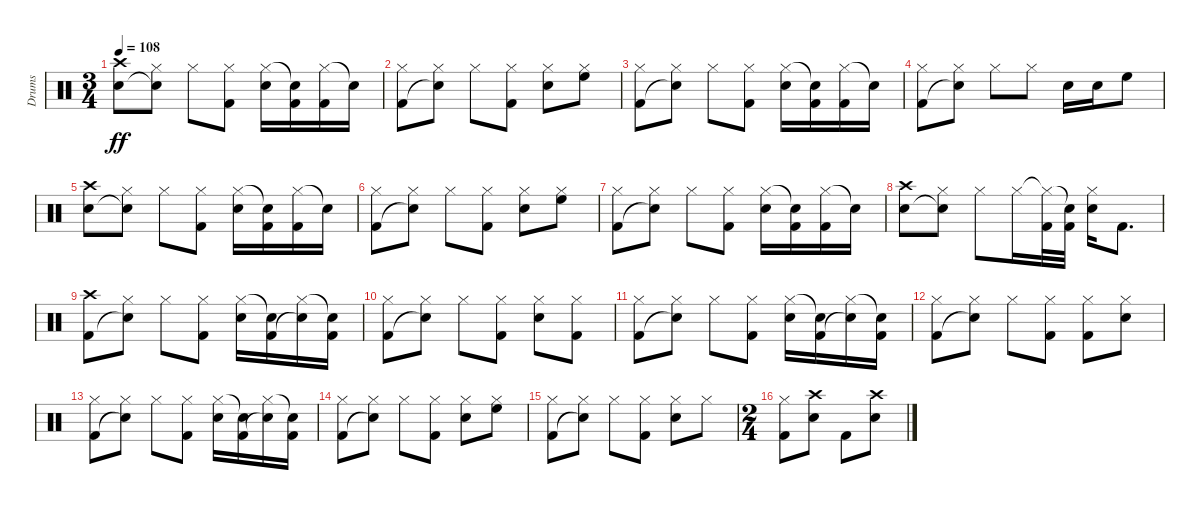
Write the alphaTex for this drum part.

\track ("Drums" "Drums") {instrument percussion}
\staff {score}
\articulation defaults
\ts (3 4)
\tempo 108
\clef neutral
\ks c
("Crash high (hit)" "Snare (hit) 2").8{dy ff} ("Hi-Hat (closed)" "Snare (hit)"{t}).8 "Hi-Hat (closed)".8 ("Hi-Hat (closed)" "Kick (hit) 2").8 ("Hi-Hat (closed)" "Snare (hit) 2").16 ("Snare (hit)"{t} "Kick (hit) 2").16 ("Hi-Hat (closed)" "Kick (hit) 2").16 "Snare (hit)"{t}.16 |
("Hi-Hat (closed)" "Kick (hit) 2").8 ("Hi-Hat (closed)" "Snare (hit)"{t}).8 "Hi-Hat (closed)".8 ("Hi-Hat (closed)" "Kick (hit) 2").8 ("Hi-Hat (closed)" "Snare (hit) 2").8 ("Hi-Hat (closed)" "High Floor Tom (hit)").8 |
("Hi-Hat (closed)" "Kick (hit) 2").8 ("Hi-Hat (closed)" "Snare (hit)"{t}).8 "Hi-Hat (closed)".8 ("Hi-Hat (closed)" "Kick (hit) 2").8 ("Hi-Hat (closed)" "Snare (hit) 2").16 ("Snare (hit)"{t} "Kick (hit) 2").16 ("Hi-Hat (closed)" "Kick (hit) 2").16 "Snare (hit)"{t}.16 |
("Hi-Hat (closed)" "Kick (hit) 2").8 ("Hi-Hat (closed)" "Snare (hit)"{t}).8 "Hi-Hat (closed)".8 "Hi-Hat (closed)".8 "Snare (hit) 2".16 "Snare (hit) 2".16 "High Floor Tom (hit)".8 |
("Crash high (hit)" "Snare (hit) 2").8 ("Hi-Hat (closed)" "Snare (hit)"{t}).8 "Hi-Hat (closed)".8 ("Hi-Hat (closed)" "Kick (hit) 2").8 ("Hi-Hat (closed)" "Snare (hit) 2").16 ("Snare (hit)"{t} "Kick (hit) 2").16 ("Hi-Hat (closed)" "Kick (hit) 2").16 "Snare (hit)"{t}.16 |
("Hi-Hat (closed)" "Kick (hit) 2").8 ("Hi-Hat (closed)" "Snare (hit)"{t}).8 "Hi-Hat (closed)".8 ("Hi-Hat (closed)" "Kick (hit) 2").8 ("Hi-Hat (closed)" "Snare (hit) 2").8 ("Hi-Hat (closed)" "High Floor Tom (hit)").8 |
("Hi-Hat (closed)" "Kick (hit) 2").8 ("Hi-Hat (closed)" "Snare (hit)"{t}).8 "Hi-Hat (closed)".8 ("Hi-Hat (closed)" "Kick (hit) 2").8 ("Hi-Hat (closed)" "Snare (hit) 2").16 ("Snare (hit)"{t} "Kick (hit) 2").16 ("Hi-Hat (closed)" "Kick (hit) 2").16 "Snare (hit)"{t}.16 |
("Crash high (hit)" "Snare (hit) 2").8 ("Hi-Hat (closed)" "Snare (hit)"{t}).8 "Hi-Hat (closed)".8 "Hi-Hat (closed)".16 ("Hi-Hat (closed)"{t} "Kick (hit) 2").32 ("Snare (hit)"{t} "Kick (hit) 2").32 ("Hi-Hat (closed)" "Snare (hit) 2").16 "Kick (hit) 2".8{d} |
("Crash high (hit)" "Kick (hit) 2").8 ("Hi-Hat (closed)" "Snare (hit)"{t}).8 "Hi-Hat (closed)".8 ("Hi-Hat (closed)" "Kick (hit) 2").8 ("Hi-Hat (closed)" "Snare (hit) 2").16 ("Snare (hit)"{t} "Kick (hit) 2").16 ("Hi-Hat (closed)" "Snare (hit)"{t}).16 ("Snare (hit)"{t} "Kick (hit) 2").16 |
("Hi-Hat (closed)" "Kick (hit) 2").8 ("Hi-Hat (closed)" "Snare (hit)"{t}).8 "Hi-Hat (closed)".8 ("Hi-Hat (closed)" "Kick (hit) 2").8 ("Hi-Hat (closed)" "Snare (hit) 2").8 ("Hi-Hat (closed)" "Kick (hit) 2").8 |
("Hi-Hat (closed)" "Kick (hit) 2").8 ("Hi-Hat (closed)" "Snare (hit)"{t}).8 "Hi-Hat (closed)".8 ("Hi-Hat (closed)" "Kick (hit) 2").8 ("Hi-Hat (closed)" "Snare (hit) 2").16 ("Snare (hit)"{t} "Kick (hit) 2").16 ("Hi-Hat (closed)" "Snare (hit)"{t}).16 ("Snare (hit)"{t} "Kick (hit) 2").16 |
("Hi-Hat (closed)" "Kick (hit) 2").8 ("Hi-Hat (closed)" "Snare (hit)"{t}).8 "Hi-Hat (closed)".8 ("Hi-Hat (closed)" "Kick (hit) 2").8 ("Hi-Hat (closed)" "Kick (hit) 2").8 ("Hi-Hat (closed)" "Snare (hit) 2").8 |
("Hi-Hat (closed)" "Kick (hit) 2").8 ("Hi-Hat (closed)" "Snare (hit)"{t}).8 "Hi-Hat (closed)".8 ("Hi-Hat (closed)" "Kick (hit) 2").8 ("Hi-Hat (closed)" "Snare (hit) 2").16 ("Snare (hit)"{t} "Kick (hit) 2").16 ("Hi-Hat (closed)" "Snare (hit)"{t}).16 ("Snare (hit)"{t} "Kick (hit) 2").16 |
("Hi-Hat (closed)" "Kick (hit) 2").8 ("Hi-Hat (closed)" "Snare (hit)"{t}).8 "Hi-Hat (closed)".8 ("Hi-Hat (closed)" "Kick (hit) 2").8 ("Hi-Hat (closed)" "Snare (hit) 2").8 ("Hi-Hat (closed)" "High Floor Tom (hit)").8 |
("Hi-Hat (closed)" "Kick (hit) 2").8 ("Hi-Hat (closed)" "Snare (hit)"{t}).8 "Hi-Hat (closed)".8 ("Hi-Hat (closed)" "Kick (hit) 2").8 ("Hi-Hat (closed)" "Snare (hit) 2").8 "Hi-Hat (closed)".8 |
\ts (2 4)
("Hi-Hat (closed)" "Kick (hit) 2").8 ("Crash high (hit)" "Snare (hit) 2").8 "Kick (hit) 2".8 ("Crash high (hit)" "Snare (hit) 2").8
